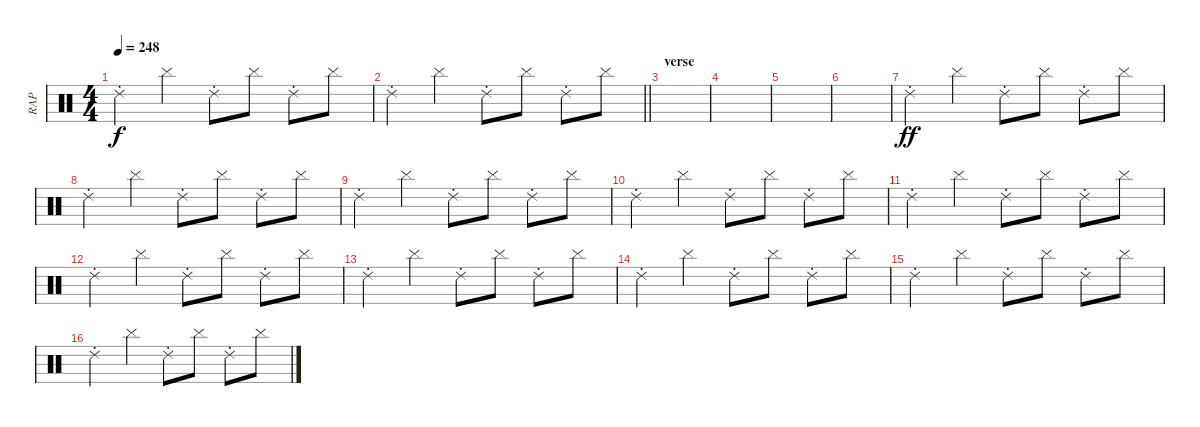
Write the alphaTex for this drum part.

\track ("RAP" "RAP") {instrument percussion}
\staff {score}
\articulation defaults
\ts (4 4)
\tempo 248
\clef neutral
\ks c "Ride (choke) 2".4{dy f} "Cymbal (hit)".4 "Ride (choke) 2".8 "Cymbal (hit)".8 "Ride (choke) 2".8 "Cymbal (hit)".8
|
\barLineRight lightlight "Ride (choke) 2".4 "Cymbal (hit)".4 "Ride (choke) 2".8 "Cymbal (hit)".8 "Ride (choke) 2".8 "Cymbal (hit)".8
|
\section ("" "verse")
|
|
|
|
"Ride (choke) 2".4{dy ff} "Cymbal (hit)".4 "Ride (choke) 2".8 "Cymbal (hit)".8 "Ride (choke) 2".8 "Cymbal (hit)".8 |
"Ride (choke) 2".4 "Cymbal (hit)".4 "Ride (choke) 2".8 "Cymbal (hit)".8 "Ride (choke) 2".8 "Cymbal (hit)".8 |
"Ride (choke) 2".4 "Cymbal (hit)".4 "Ride (choke) 2".8 "Cymbal (hit)".8 "Ride (choke) 2".8 "Cymbal (hit)".8 |
"Ride (choke) 2".4 "Cymbal (hit)".4 "Ride (choke) 2".8 "Cymbal (hit)".8 "Ride (choke) 2".8 "Cymbal (hit)".8 |
"Ride (choke) 2".4 "Cymbal (hit)".4 "Ride (choke) 2".8 "Cymbal (hit)".8 "Ride (choke) 2".8 "Cymbal (hit)".8 |
"Ride (choke) 2".4 "Cymbal (hit)".4 "Ride (choke) 2".8 "Cymbal (hit)".8 "Ride (choke) 2".8 "Cymbal (hit)".8 |
"Ride (choke) 2".4 "Cymbal (hit)".4 "Ride (choke) 2".8 "Cymbal (hit)".8 "Ride (choke) 2".8 "Cymbal (hit)".8 |
"Ride (choke) 2".4 "Cymbal (hit)".4 "Ride (choke) 2".8 "Cymbal (hit)".8 "Ride (choke) 2".8 "Cymbal (hit)".8 |
"Ride (choke) 2".4 "Cymbal (hit)".4 "Ride (choke) 2".8 "Cymbal (hit)".8 "Ride (choke) 2".8 "Cymbal (hit)".8 |
"Ride (choke) 2".4 "Cymbal (hit)".4 "Ride (choke) 2".8 "Cymbal (hit)".8 "Ride (choke) 2".8 "Cymbal (hit)".8
